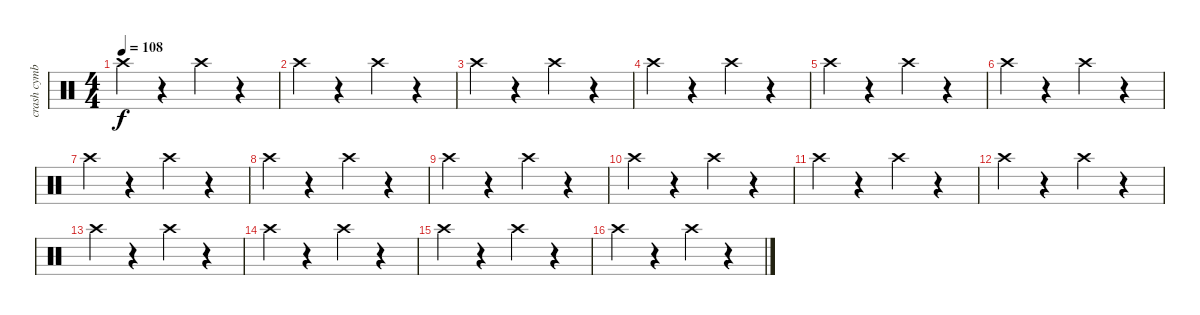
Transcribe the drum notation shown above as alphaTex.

\track ("crash cymbal        " "crash cymb") {instrument percussion}
\staff {score}
\articulation defaults
\ts (4 4)
\tempo 108
\clef neutral
\ks c "Crash high (hit)".4{dy f}
r.4 "Crash high (hit)".4 r.4 |
"Crash high (hit)".4 r.4 "Crash high (hit)".4 r.4 |
"Crash high (hit)".4 r.4 "Crash high (hit)".4 r.4 |
"Crash high (hit)".4 r.4 "Crash high (hit)".4 r.4 |
"Crash high (hit)".4 r.4 "Crash high (hit)".4 r.4 |
"Crash high (hit)".4 r.4 "Crash high (hit)".4 r.4 |
"Crash high (hit)".4 r.4 "Crash high (hit)".4 r.4 |
"Crash high (hit)".4 r.4 "Crash high (hit)".4 r.4 |
"Crash high (hit)".4 r.4 "Crash high (hit)".4 r.4 |
"Crash high (hit)".4 r.4 "Crash high (hit)".4 r.4 |
"Crash high (hit)".4 r.4 "Crash high (hit)".4 r.4 |
"Crash high (hit)".4 r.4 "Crash high (hit)".4 r.4 |
"Crash high (hit)".4 r.4 "Crash high (hit)".4 r.4 |
"Crash high (hit)".4 r.4 "Crash high (hit)".4 r.4 |
"Crash high (hit)".4 r.4 "Crash high (hit)".4 r.4 |
"Crash high (hit)".4{volume 16} r.4 "Crash high (hit)".4{volume 15} r.4
